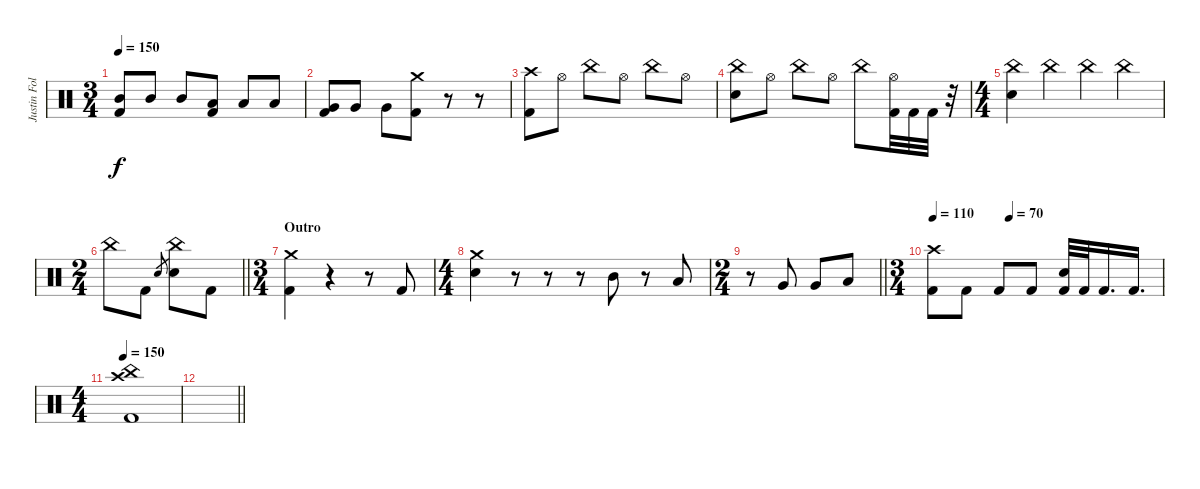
\track ("Justin Foley" "Justin Fol") {instrument percussion}
\staff {score}
\articulation defaults
\ts (3 4)
\tempo 150
\clef neutral
\ks c
("Mid Tom (hit)" "Kick (hit) 2").8{dy f balance 0} "Mid Tom (hit)".8 "Mid Tom (hit)".8 ("Low Tom (hit)" "Kick (hit) 2").8{balance 4} "Low Tom (hit)".8 "Low Tom (hit)".8{balance 8} |
("Very Low Tom (hit)" "Kick (hit) 2").8 "Very Low Tom (hit)".8{balance 12} "Very Low Tom (hit)".8 ("Crash medium (hit)" "Kick (hit) 2").8{balance 16} r.8 r.8 |
("Crash high (hit)" "Kick (hit) 2").8{balance 8} "Hi-Hat (open)".8 "China (hit)".8 "Hi-Hat (open)".8 "China (hit)".8 "Hi-Hat (open)".8 |
("China (hit)" "Snare (hit) 2").8 "Hi-Hat (open)".8 "China (hit)".8 "Hi-Hat (open)".8 "China (hit)".8 ("Hi-Hat (open)" "Kick (hit) 2").32 "Kick (hit) 2".32 "Kick (hit) 2".32 r.32 |
\ts (4 4)
("China (hit)" "Snare (hit) 2").4 "China (hit)".4 "China (hit)".4 "China (hit)".4 |
\ts (2 4)
\barLineRight lightlight "China (hit)".8 "Kick (hit) 2".8 "Snare (hit) 2".8{gr}
("China (hit)" "Snare (hit) 2").8 "Kick (hit) 2".8 |
\ts (3 4)
\section ("" "Outro")
("Crash medium (hit)" "Kick (hit) 2").4 r.4 r.8 "Kick (hit) 2".8 |
\ts (4 4)
("Crash medium (hit)" "Snare (hit) 2").4 r.8 r.8 r.8 "Mid Tom (hit)".8 r.8 "Low Tom (hit)".8 |
\ts (2 4)
\barLineRight lightlight
r.8 "Very Low Tom (hit)".8 "Very Low Tom (hit)".8 "Low Floor Tom (hit)".8 |
\ts (3 4)
\tempo 110
\tempo (70 0.3333333333333333)
("Crash high (hit)" "Kick (hit) 2").8 "Kick (hit) 2".8 "Kick (hit) 2".8 "Kick (hit) 2".8 ("Snare (hit) 2" "Kick (hit) 2").32 "Kick (hit) 2".32 "Kick (hit) 2".16{d} "Kick (hit) 2".16{d} |
\ts (4 4)
\tempo 150
("China (hit)" "Crash high (hit)" "Kick (hit) 2").1 |
\barLineRight lightlight
